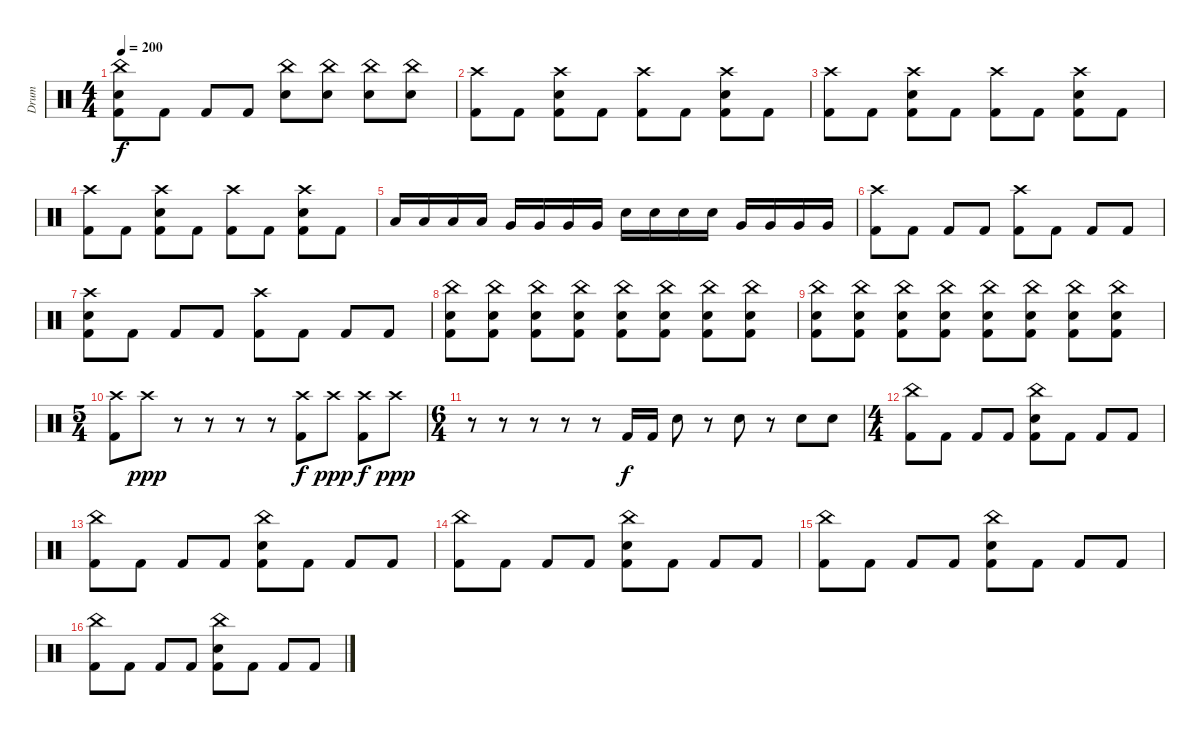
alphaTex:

\track ("Drum" "Drum") {instrument percussion}
\staff {score}
\articulation defaults
\ts (4 4)
\tempo 200
\clef neutral
\ks c
("China (hit)" "Snare (hit) 2" "Kick (hit) 2").8{dy f} "Kick (hit) 2".8 "Kick (hit) 2".8 "Kick (hit) 2".8 ("China (hit)" "Snare (hit) 2").8 ("China (hit)" "Snare (hit) 2").8 ("China (hit)" "Snare (hit) 2").8 ("China (hit)" "Snare (hit) 2").8 |
("Crash high (hit)" "Kick (hit) 2").8 "Kick (hit) 2".8 ("Crash high (hit)" "Snare (hit) 2" "Kick (hit) 2").8 "Kick (hit) 2".8 ("Crash high (hit)" "Kick (hit) 2").8 "Kick (hit) 2".8 ("Crash high (hit)" "Snare (hit) 2" "Kick (hit) 2").8 "Kick (hit) 2".8 |
("Crash high (hit)" "Kick (hit) 2").8 "Kick (hit) 2".8 ("Crash high (hit)" "Snare (hit) 2" "Kick (hit) 2").8 "Kick (hit) 2".8 ("Crash high (hit)" "Kick (hit) 2").8 "Kick (hit) 2".8 ("Crash high (hit)" "Snare (hit) 2" "Kick (hit) 2").8 "Kick (hit) 2".8 |
("Crash high (hit)" "Kick (hit) 2").8 "Kick (hit) 2".8 ("Crash high (hit)" "Snare (hit) 2" "Kick (hit) 2").8 "Kick (hit) 2".8 ("Crash high (hit)" "Kick (hit) 2").8 "Kick (hit) 2".8 ("Crash high (hit)" "Snare (hit) 2" "Kick (hit) 2").8 "Kick (hit) 2".8 |
"Low Tom (hit)".16 "Low Tom (hit)".16 "Low Tom (hit)".16 "Low Tom (hit)".16 "Very Low Tom (hit)".16 "Very Low Tom (hit)".16 "Very Low Tom (hit)".16 "Very Low Tom (hit)".16 "Snare (hit) 2".16 "Snare (hit) 2".16 "Snare (hit) 2".16 "Snare (hit) 2".16 "Very Low Tom (hit)".16 "Very Low Tom (hit)".16 "Very Low Tom (hit)".16 "Very Low Tom (hit)".16 |
("Crash high (hit)" "Kick (hit) 2").8 "Kick (hit) 2".8 "Kick (hit) 2".8 "Kick (hit) 2".8 ("Crash high (hit)" "Kick (hit) 2").8 "Kick (hit) 2".8 "Kick (hit) 2".8 "Kick (hit) 2".8 |
("Crash high (hit)" "Snare (hit) 2" "Kick (hit) 2").8 "Kick (hit) 2".8 "Kick (hit) 2".8 "Kick (hit) 2".8 ("Crash high (hit)" "Kick (hit) 2").8 "Kick (hit) 2".8 "Kick (hit) 2".8 "Kick (hit) 2".8 |
("China (hit)" "Snare (hit) 2" "Kick (hit) 2").8 ("China (hit)" "Snare (hit) 2" "Kick (hit) 2").8 ("China (hit)" "Snare (hit) 2" "Kick (hit) 2").8 ("China (hit)" "Snare (hit) 2" "Kick (hit) 2").8 ("China (hit)" "Snare (hit) 2" "Kick (hit) 2").8 ("China (hit)" "Snare (hit) 2" "Kick (hit) 2").8 ("China (hit)" "Snare (hit) 2" "Kick (hit) 2").8 ("China (hit)" "Snare (hit) 2" "Kick (hit) 2").8 |
("China (hit)" "Snare (hit) 2" "Kick (hit) 2").8 ("China (hit)" "Snare (hit) 2" "Kick (hit) 2").8 ("China (hit)" "Snare (hit) 2" "Kick (hit) 2").8 ("China (hit)" "Snare (hit) 2" "Kick (hit) 2").8 ("China (hit)" "Snare (hit) 2" "Kick (hit) 2").8 ("China (hit)" "Snare (hit) 2" "Kick (hit) 2").8 ("China (hit)" "Snare (hit) 2" "Kick (hit) 2").8 ("China (hit)" "Snare (hit) 2" "Kick (hit) 2").8 |
\ts (5 4)
("Crash high (hit)" "Kick (hit) 2").8 "Crash high (hit)".8{dy ppp} r.8 r.8 r.8 r.8 ("Crash high (hit)" "Kick (hit) 2").8{dy f} "Crash high (hit)".8{dy ppp} ("Crash high (hit)" "Kick (hit) 2").8{dy f} "Crash high (hit)".8{dy ppp} |
\ts (6 4)
r.8 r.8 r.8 r.8 r.8 "Kick (hit) 2".16{dy f} "Kick (hit) 2".16 "Snare (hit) 2".8 r.8 "Snare (hit) 2".8 r.8 "Snare (hit) 2".8 "Snare (hit) 2".8 |
\ts (4 4)
("China (hit)" "Kick (hit) 2").8 "Kick (hit) 2".8 "Kick (hit) 2".8 "Kick (hit) 2".8 ("China (hit)" "Snare (hit) 2" "Kick (hit) 2").8 "Kick (hit) 2".8 "Kick (hit) 2".8 "Kick (hit) 2".8 |
("China (hit)" "Kick (hit) 2").8 "Kick (hit) 2".8 "Kick (hit) 2".8 "Kick (hit) 2".8 ("China (hit)" "Snare (hit) 2" "Kick (hit) 2").8 "Kick (hit) 2".8 "Kick (hit) 2".8 "Kick (hit) 2".8 |
("China (hit)" "Kick (hit) 2").8 "Kick (hit) 2".8 "Kick (hit) 2".8 "Kick (hit) 2".8 ("China (hit)" "Snare (hit) 2" "Kick (hit) 2").8 "Kick (hit) 2".8 "Kick (hit) 2".8 "Kick (hit) 2".8 |
("China (hit)" "Kick (hit) 2").8 "Kick (hit) 2".8 "Kick (hit) 2".8 "Kick (hit) 2".8 ("China (hit)" "Snare (hit) 2" "Kick (hit) 2").8 "Kick (hit) 2".8 "Kick (hit) 2".8 "Kick (hit) 2".8 |
("China (hit)" "Kick (hit) 2").8 "Kick (hit) 2".8 "Kick (hit) 2".8 "Kick (hit) 2".8 ("China (hit)" "Snare (hit) 2" "Kick (hit) 2").8 "Kick (hit) 2".8 "Kick (hit) 2".8 "Kick (hit) 2".8
